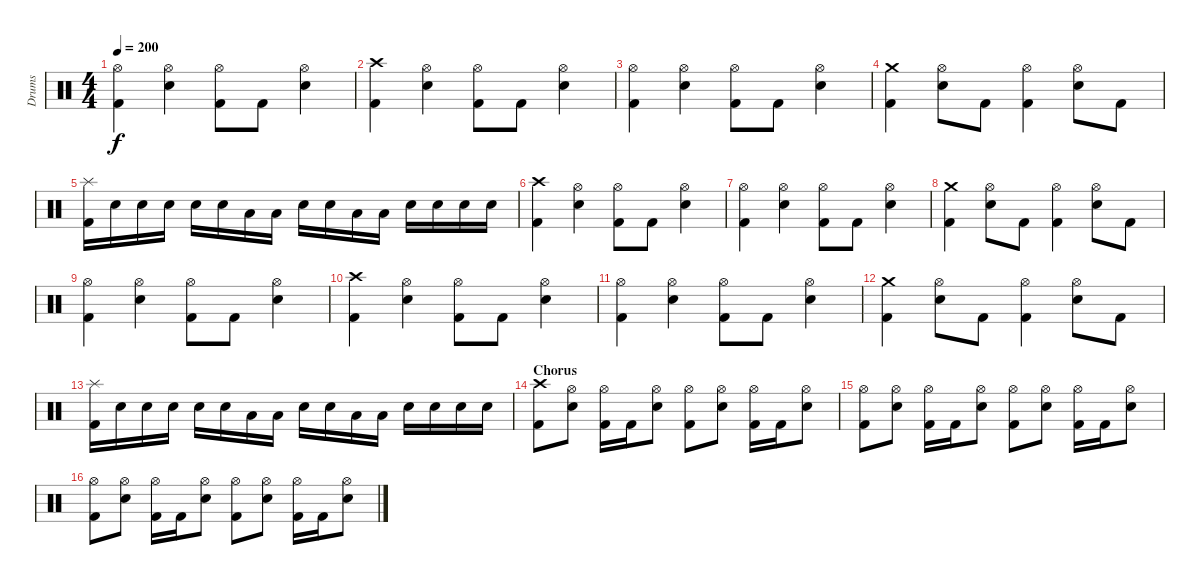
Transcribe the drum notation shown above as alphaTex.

\track ("Drums" "Drums") {instrument percussion}
\staff {score}
\articulation defaults
\ts (4 4)
\tempo 200
\clef neutral
\ks c
("Hi-Hat (open)" "Kick (hit) 2").4{dy f} ("Hi-Hat (open)" "Electric Snare (hit)").4 ("Hi-Hat (open)" "Kick (hit) 2").8 "Kick (hit) 2".8 ("Hi-Hat (open)" "Electric Snare (hit)").4 |
("Crash high (hit)" "Kick (hit) 2").4 ("Hi-Hat (open)" "Electric Snare (hit)").4 ("Hi-Hat (open)" "Kick (hit) 2").8 "Kick (hit) 2".8 ("Hi-Hat (open)" "Electric Snare (hit)").4 |
("Hi-Hat (open)" "Kick (hit) 2").4 ("Hi-Hat (open)" "Electric Snare (hit)").4 ("Hi-Hat (open)" "Kick (hit) 2").8 "Kick (hit) 2".8 ("Hi-Hat (open)" "Electric Snare (hit)").4 |
("Crash medium (hit)" "Kick (hit) 2").4 ("Hi-Hat (open)" "Electric Snare (hit)").8 "Kick (hit) 2".8 ("Hi-Hat (open)" "Kick (hit) 2").4 ("Hi-Hat (open)" "Electric Snare (hit)").8 "Kick (hit) 2".8 |
("Splash (hit)" "Kick (hit) 2").16 "Electric Snare (hit)".16 "Electric Snare (hit)".16 "Electric Snare (hit)".16 "Electric Snare (hit)".16 "Electric Snare (hit)".16 "Low Tom (hit)".16 "Low Tom (hit)".16 "Electric Snare (hit)".16 "Electric Snare (hit)".16 "Low Tom (hit)".16 "Low Tom (hit)".16 "Electric Snare (hit)".16 "Electric Snare (hit)".16 "Electric Snare (hit)".16 "Electric Snare (hit)".16 |
("Crash high (hit)" "Kick (hit) 2").4 ("Hi-Hat (open)" "Electric Snare (hit)").4 ("Hi-Hat (open)" "Kick (hit) 2").8 "Kick (hit) 2".8 ("Hi-Hat (open)" "Electric Snare (hit)").4 |
("Hi-Hat (open)" "Kick (hit) 2").4 ("Hi-Hat (open)" "Electric Snare (hit)").4 ("Hi-Hat (open)" "Kick (hit) 2").8 "Kick (hit) 2".8 ("Hi-Hat (open)" "Electric Snare (hit)").4 |
("Crash medium (hit)" "Kick (hit) 2").4 ("Hi-Hat (open)" "Electric Snare (hit)").8 "Kick (hit) 2".8 ("Hi-Hat (open)" "Kick (hit) 2").4 ("Hi-Hat (open)" "Electric Snare (hit)").8 "Kick (hit) 2".8 |
("Hi-Hat (open)" "Kick (hit) 2").4 ("Hi-Hat (open)" "Electric Snare (hit)").4 ("Hi-Hat (open)" "Kick (hit) 2").8 "Kick (hit) 2".8 ("Hi-Hat (open)" "Electric Snare (hit)").4 |
("Crash high (hit)" "Kick (hit) 2").4 ("Hi-Hat (open)" "Electric Snare (hit)").4 ("Hi-Hat (open)" "Kick (hit) 2").8 "Kick (hit) 2".8 ("Hi-Hat (open)" "Electric Snare (hit)").4 |
("Hi-Hat (open)" "Kick (hit) 2").4 ("Hi-Hat (open)" "Electric Snare (hit)").4 ("Hi-Hat (open)" "Kick (hit) 2").8 "Kick (hit) 2".8 ("Hi-Hat (open)" "Electric Snare (hit)").4 |
("Crash medium (hit)" "Kick (hit) 2").4 ("Hi-Hat (open)" "Electric Snare (hit)").8 "Kick (hit) 2".8 ("Hi-Hat (open)" "Kick (hit) 2").4 ("Hi-Hat (open)" "Electric Snare (hit)").8 "Kick (hit) 2".8 |
("Splash (hit)" "Kick (hit) 2").16 "Electric Snare (hit)".16 "Electric Snare (hit)".16 "Electric Snare (hit)".16 "Electric Snare (hit)".16 "Electric Snare (hit)".16 "Low Tom (hit)".16 "Low Tom (hit)".16 "Electric Snare (hit)".16 "Electric Snare (hit)".16 "Low Tom (hit)".16 "Low Tom (hit)".16 "Electric Snare (hit)".16 "Electric Snare (hit)".16 "Electric Snare (hit)".16 "Electric Snare (hit)".16 |
\section ("" "Chorus")
("Crash high (hit)" "Kick (hit) 2").8 ("Hi-Hat (open)" "Electric Snare (hit)").8 ("Hi-Hat (open)" "Kick (hit) 2").16 "Kick (hit) 2".16 ("Hi-Hat (open)" "Electric Snare (hit)").8 ("Hi-Hat (open)" "Kick (hit) 2").8 ("Hi-Hat (open)" "Electric Snare (hit)").8 ("Hi-Hat (open)" "Kick (hit) 2").16 "Kick (hit) 2".16 ("Hi-Hat (open)" "Electric Snare (hit)").8 |
("Hi-Hat (open)" "Kick (hit) 2").8 ("Hi-Hat (open)" "Electric Snare (hit)").8 ("Hi-Hat (open)" "Kick (hit) 2").16 "Kick (hit) 2".16 ("Hi-Hat (open)" "Electric Snare (hit)").8 ("Hi-Hat (open)" "Kick (hit) 2").8 ("Hi-Hat (open)" "Electric Snare (hit)").8 ("Hi-Hat (open)" "Kick (hit) 2").16 "Kick (hit) 2".16 ("Hi-Hat (open)" "Electric Snare (hit)").8 |
("Hi-Hat (open)" "Kick (hit) 2").8 ("Hi-Hat (open)" "Electric Snare (hit)").8 ("Hi-Hat (open)" "Kick (hit) 2").16 "Kick (hit) 2".16 ("Hi-Hat (open)" "Electric Snare (hit)").8 ("Hi-Hat (open)" "Kick (hit) 2").8 ("Hi-Hat (open)" "Electric Snare (hit)").8 ("Hi-Hat (open)" "Kick (hit) 2").16 "Kick (hit) 2".16 ("Hi-Hat (open)" "Electric Snare (hit)").8
